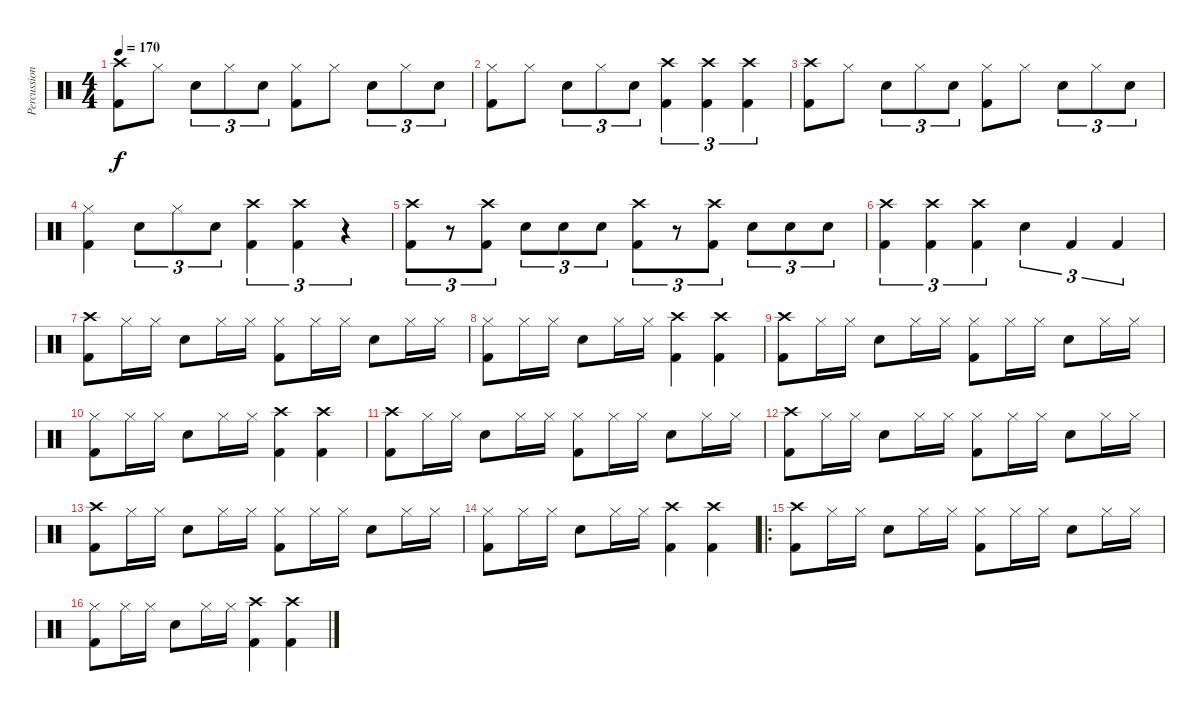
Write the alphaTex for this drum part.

\track ("Percussion" "Percussion") {instrument percussion}
\staff {score}
\articulation defaults
\ts (4 4)
\tempo 170
\clef neutral
\ks c
("Crash high (hit)" "Kick (hit) 2").8{dy f} "Hi-Hat (closed)".8 "Snare (hit) 2".8{tu (3 2)} "Hi-Hat (closed)".8{tu (3 2)} "Snare (hit) 2".8{tu (3 2)} ("Hi-Hat (closed)" "Kick (hit) 2").8 "Hi-Hat (closed)".8 "Snare (hit) 2".8{tu (3 2)} "Hi-Hat (closed)".8{tu (3 2)} "Snare (hit) 2".8{tu (3 2)} |
("Hi-Hat (closed)" "Kick (hit) 2").8 "Hi-Hat (closed)".8 "Snare (hit) 2".8{tu (3 2)} "Hi-Hat (closed)".8{tu (3 2)} "Snare (hit) 2".8{tu (3 2)} ("Crash high (hit)" "Kick (hit) 2").4{tu (3 2)} ("Crash high (hit)" "Kick (hit) 2").4{tu (3 2)} ("Crash high (hit)" "Kick (hit) 2").4{tu (3 2)} |
("Crash high (hit)" "Kick (hit) 2").8 "Hi-Hat (closed)".8 "Snare (hit) 2".8{tu (3 2)} "Hi-Hat (closed)".8{tu (3 2)} "Snare (hit) 2".8{tu (3 2)} ("Hi-Hat (closed)" "Kick (hit) 2").8 "Hi-Hat (closed)".8 "Snare (hit) 2".8{tu (3 2)} "Hi-Hat (closed)".8{tu (3 2)} "Snare (hit) 2".8{tu (3 2)} |
("Hi-Hat (closed)" "Kick (hit) 2").4 "Snare (hit) 2".8{tu (3 2)} "Hi-Hat (closed)".8{tu (3 2)} "Snare (hit) 2".8{tu (3 2)} ("Crash high (hit)" "Kick (hit) 2").4{tu (3 2)} ("Crash high (hit)" "Kick (hit) 2").4{tu (3 2)} r.4{tu (3 2)} |
("Crash high (hit)" "Kick (hit) 2").8{tu (3 2)} r.8{tu (3 2)} ("Crash high (hit)" "Kick (hit) 2").8{tu (3 2)} "Snare (hit) 2".8{tu (3 2)} "Snare (hit) 2".8{tu (3 2)} "Snare (hit) 2".8{tu (3 2)} ("Crash high (hit)" "Kick (hit) 2").8{tu (3 2)} r.8{tu (3 2)} ("Crash high (hit)" "Kick (hit) 2").8{tu (3 2)} "Snare (hit) 2".8{tu (3 2)} "Snare (hit) 2".8{tu (3 2)} "Snare (hit) 2".8{tu (3 2)} |
("Crash high (hit)" "Kick (hit) 2").4{tu (3 2)} ("Crash high (hit)" "Kick (hit) 2").4{tu (3 2)} ("Crash high (hit)" "Kick (hit) 2").4{tu (3 2)} "Snare (hit) 2".4{tu (3 2)} "Kick (hit) 2".4{tu (3 2)} "Kick (hit) 2".4{tu (3 2)} |
("Crash high (hit)" "Kick (hit) 2").8 "Hi-Hat (closed)".16 "Hi-Hat (closed)".16 "Snare (hit) 2".8 "Hi-Hat (closed)".16 "Hi-Hat (closed)".16 ("Hi-Hat (closed)" "Kick (hit) 2").8 "Hi-Hat (closed)".16 "Hi-Hat (closed)".16 "Snare (hit) 2".8 "Hi-Hat (closed)".16 "Hi-Hat (closed)".16 |
("Hi-Hat (closed)" "Kick (hit) 2").8 "Hi-Hat (closed)".16 "Hi-Hat (closed)".16 "Snare (hit) 2".8 "Hi-Hat (closed)".16 "Hi-Hat (closed)".16 ("Crash high (hit)" "Kick (hit) 2").4 ("Crash high (hit)" "Kick (hit) 2").4 |
("Crash high (hit)" "Kick (hit) 2").8 "Hi-Hat (closed)".16 "Hi-Hat (closed)".16 "Snare (hit) 2".8 "Hi-Hat (closed)".16 "Hi-Hat (closed)".16 ("Hi-Hat (closed)" "Kick (hit) 2").8 "Hi-Hat (closed)".16 "Hi-Hat (closed)".16 "Snare (hit) 2".8 "Hi-Hat (closed)".16 "Hi-Hat (closed)".16 |
("Hi-Hat (closed)" "Kick (hit) 2").8 "Hi-Hat (closed)".16 "Hi-Hat (closed)".16 "Snare (hit) 2".8 "Hi-Hat (closed)".16 "Hi-Hat (closed)".16 ("Crash high (hit)" "Kick (hit) 2").4 ("Crash high (hit)" "Kick (hit) 2").4 |
("Crash high (hit)" "Kick (hit) 2").8 "Hi-Hat (closed)".16 "Hi-Hat (closed)".16 "Snare (hit) 2".8 "Hi-Hat (closed)".16 "Hi-Hat (closed)".16 ("Hi-Hat (closed)" "Kick (hit) 2").8 "Hi-Hat (closed)".16 "Hi-Hat (closed)".16 "Snare (hit) 2".8 "Hi-Hat (closed)".16 "Hi-Hat (closed)".16 |
("Crash high (hit)" "Kick (hit) 2").8 "Hi-Hat (closed)".16 "Hi-Hat (closed)".16 "Snare (hit) 2".8 "Hi-Hat (closed)".16 "Hi-Hat (closed)".16 ("Hi-Hat (closed)" "Kick (hit) 2").8 "Hi-Hat (closed)".16 "Hi-Hat (closed)".16 "Snare (hit) 2".8 "Hi-Hat (closed)".16 "Hi-Hat (closed)".16 |
("Crash high (hit)" "Kick (hit) 2").8 "Hi-Hat (closed)".16 "Hi-Hat (closed)".16 "Snare (hit) 2".8 "Hi-Hat (closed)".16 "Hi-Hat (closed)".16 ("Hi-Hat (closed)" "Kick (hit) 2").8 "Hi-Hat (closed)".16 "Hi-Hat (closed)".16 "Snare (hit) 2".8 "Hi-Hat (closed)".16 "Hi-Hat (closed)".16 |
("Hi-Hat (closed)" "Kick (hit) 2").8 "Hi-Hat (closed)".16 "Hi-Hat (closed)".16 "Snare (hit) 2".8 "Hi-Hat (closed)".16 "Hi-Hat (closed)".16 ("Crash high (hit)" "Kick (hit) 2").4 ("Crash high (hit)" "Kick (hit) 2").4 |
\ro
("Crash high (hit)" "Kick (hit) 2").8 "Hi-Hat (closed)".16 "Hi-Hat (closed)".16 "Snare (hit) 2".8 "Hi-Hat (closed)".16 "Hi-Hat (closed)".16 ("Hi-Hat (closed)" "Kick (hit) 2").8 "Hi-Hat (closed)".16 "Hi-Hat (closed)".16 "Snare (hit) 2".8 "Hi-Hat (closed)".16 "Hi-Hat (closed)".16 |
("Hi-Hat (closed)" "Kick (hit) 2").8 "Hi-Hat (closed)".16 "Hi-Hat (closed)".16 "Snare (hit) 2".8 "Hi-Hat (closed)".16 "Hi-Hat (closed)".16 ("Crash high (hit)" "Kick (hit) 2").4 ("Crash high (hit)" "Kick (hit) 2").4
